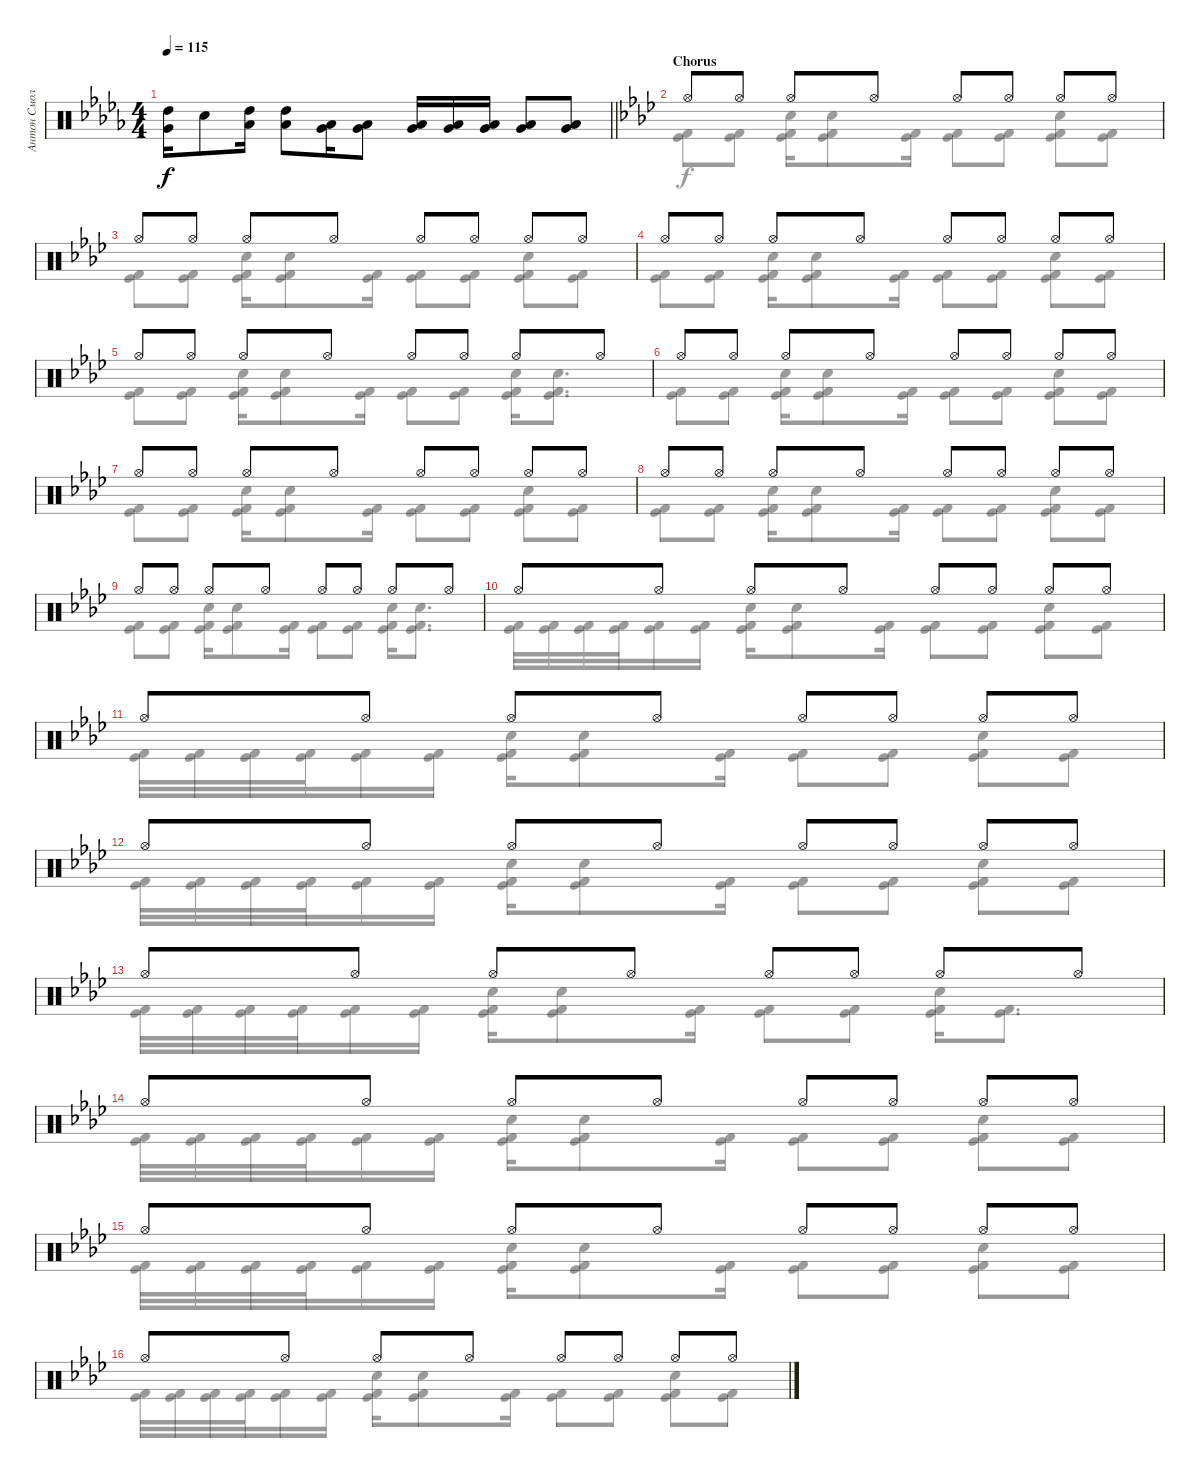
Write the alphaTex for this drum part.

\track ("Антон Смольянин" "Антон Смол") {instrument percussion}
\staff {score}
\articulation defaults
\voice
\ts (4 4)
\tempo 115
\clef neutral
\barLineRight lightlight
\ks db
("Very Low Tom (hit)" "High Tom (hit)").16{dy f} "Electric Snare (hit)".8 ("Low Tom (hit)" "High Tom (hit)").16 ("Low Tom (hit)" "High Tom (hit)").8 ("Low Tom (hit)" "Very Low Tom (hit)").16 ("Low Tom (hit)" "Very Low Tom (hit)").8 ("Very Low Tom (hit)" "Low Floor Tom (hit)").16 ("Very Low Tom (hit)" "Low Floor Tom (hit)").16 ("Very Low Tom (hit)" "Low Floor Tom (hit)").16 ("Very Low Tom (hit)" "Low Floor Tom (hit)").8 ("Very Low Tom (hit)" "Low Floor Tom (hit)").8 |
\section ("" "Chorus")
\ks ab "Hi-Hat (open)".8 "Hi-Hat (open)".8 "Hi-Hat (open)".8 "Hi-Hat (open)".8 "Hi-Hat (open)".8 "Hi-Hat (open)".8 "Hi-Hat (open)".8 "Hi-Hat (open)".8
|
"Hi-Hat (open)".8 "Hi-Hat (open)".8 "Hi-Hat (open)".8 "Hi-Hat (open)".8 "Hi-Hat (open)".8 "Hi-Hat (open)".8 "Hi-Hat (open)".8 "Hi-Hat (open)".8 |
"Hi-Hat (open)".8 "Hi-Hat (open)".8 "Hi-Hat (open)".8 "Hi-Hat (open)".8 "Hi-Hat (open)".8 "Hi-Hat (open)".8 "Hi-Hat (open)".8 "Hi-Hat (open)".8 |
"Hi-Hat (open)".8 "Hi-Hat (open)".8 "Hi-Hat (open)".8 "Hi-Hat (open)".8 "Hi-Hat (open)".8 "Hi-Hat (open)".8 "Hi-Hat (open)".8 "Hi-Hat (open)".8 |
"Hi-Hat (open)".8 "Hi-Hat (open)".8 "Hi-Hat (open)".8 "Hi-Hat (open)".8 "Hi-Hat (open)".8 "Hi-Hat (open)".8 "Hi-Hat (open)".8 "Hi-Hat (open)".8 |
"Hi-Hat (open)".8 "Hi-Hat (open)".8 "Hi-Hat (open)".8 "Hi-Hat (open)".8 "Hi-Hat (open)".8 "Hi-Hat (open)".8 "Hi-Hat (open)".8 "Hi-Hat (open)".8 |
"Hi-Hat (open)".8 "Hi-Hat (open)".8 "Hi-Hat (open)".8 "Hi-Hat (open)".8 "Hi-Hat (open)".8 "Hi-Hat (open)".8 "Hi-Hat (open)".8 "Hi-Hat (open)".8 |
"Hi-Hat (open)".8 "Hi-Hat (open)".8 "Hi-Hat (open)".8 "Hi-Hat (open)".8 "Hi-Hat (open)".8 "Hi-Hat (open)".8 "Hi-Hat (open)".8 "Hi-Hat (open)".8 |
"Hi-Hat (open)".8 "Hi-Hat (open)".8 "Hi-Hat (open)".8 "Hi-Hat (open)".8 "Hi-Hat (open)".8 "Hi-Hat (open)".8 "Hi-Hat (open)".8 "Hi-Hat (open)".8 |
"Hi-Hat (open)".8 "Hi-Hat (open)".8 "Hi-Hat (open)".8 "Hi-Hat (open)".8 "Hi-Hat (open)".8 "Hi-Hat (open)".8 "Hi-Hat (open)".8 "Hi-Hat (open)".8 |
"Hi-Hat (open)".8 "Hi-Hat (open)".8 "Hi-Hat (open)".8 "Hi-Hat (open)".8 "Hi-Hat (open)".8 "Hi-Hat (open)".8 "Hi-Hat (open)".8 "Hi-Hat (open)".8 |
"Hi-Hat (open)".8 "Hi-Hat (open)".8 "Hi-Hat (open)".8 "Hi-Hat (open)".8 "Hi-Hat (open)".8 "Hi-Hat (open)".8 "Hi-Hat (open)".8 "Hi-Hat (open)".8 |
"Hi-Hat (open)".8 "Hi-Hat (open)".8 "Hi-Hat (open)".8 "Hi-Hat (open)".8 "Hi-Hat (open)".8 "Hi-Hat (open)".8 "Hi-Hat (open)".8 "Hi-Hat (open)".8 |
"Hi-Hat (open)".8 "Hi-Hat (open)".8 "Hi-Hat (open)".8 "Hi-Hat (open)".8 "Hi-Hat (open)".8 "Hi-Hat (open)".8 "Hi-Hat (open)".8 "Hi-Hat (open)".8 |
"Hi-Hat (open)".8 "Hi-Hat (open)".8 "Hi-Hat (open)".8 "Hi-Hat (open)".8 "Hi-Hat (open)".8 "Hi-Hat (open)".8 "Hi-Hat (open)".8 "Hi-Hat (open)".8
\voice
\clef neutral
\ottava regular
\simile none
\barLineRight lightlight
\ks db
|
\ks ab
("Kick (hit) 2" "Kick (hit)").8 ("Kick (hit) 2" "Kick (hit)").8 ("Kick (hit) 2" "Kick (hit)" "Electric Snare (hit)").16 ("Kick (hit) 2" "Kick (hit)" "Electric Snare (hit)").8 ("Kick (hit) 2" "Kick (hit)").16 ("Kick (hit) 2" "Kick (hit)").8 ("Kick (hit) 2" "Kick (hit)").8 ("Kick (hit) 2" "Kick (hit)" "Electric Snare (hit)").8 ("Kick (hit) 2" "Kick (hit)").8 |
("Kick (hit) 2" "Kick (hit)").8 ("Kick (hit) 2" "Kick (hit)").8 ("Kick (hit) 2" "Kick (hit)" "Electric Snare (hit)").16 ("Kick (hit) 2" "Kick (hit)" "Electric Snare (hit)").8 ("Kick (hit) 2" "Kick (hit)").16 ("Kick (hit) 2" "Kick (hit)").8 ("Kick (hit) 2" "Kick (hit)").8 ("Kick (hit) 2" "Kick (hit)" "Electric Snare (hit)").8 ("Kick (hit) 2" "Kick (hit)").8 |
("Kick (hit) 2" "Kick (hit)").8 ("Kick (hit) 2" "Kick (hit)").8 ("Kick (hit) 2" "Kick (hit)" "Electric Snare (hit)").16 ("Kick (hit) 2" "Kick (hit)" "Electric Snare (hit)").8 ("Kick (hit) 2" "Kick (hit)").16 ("Kick (hit) 2" "Kick (hit)").8 ("Kick (hit) 2" "Kick (hit)").8 ("Kick (hit) 2" "Kick (hit)" "Electric Snare (hit)").8 ("Kick (hit) 2" "Kick (hit)").8 |
("Kick (hit) 2" "Kick (hit)").8 ("Kick (hit) 2" "Kick (hit)").8 ("Kick (hit) 2" "Kick (hit)" "Electric Snare (hit)").16 ("Kick (hit) 2" "Kick (hit)" "Electric Snare (hit)").8 ("Kick (hit) 2" "Kick (hit)").16 ("Kick (hit) 2" "Kick (hit)").8 ("Kick (hit) 2" "Kick (hit)").8 ("Kick (hit) 2" "Kick (hit)" "Electric Snare (hit)").16 ("Kick (hit) 2" "Kick (hit)" "Electric Snare (hit)").8{d} |
("Kick (hit) 2" "Kick (hit)").8 ("Kick (hit) 2" "Kick (hit)").8 ("Kick (hit) 2" "Kick (hit)" "Electric Snare (hit)").16 ("Kick (hit) 2" "Kick (hit)" "Electric Snare (hit)").8 ("Kick (hit) 2" "Kick (hit)").16 ("Kick (hit) 2" "Kick (hit)").8 ("Kick (hit) 2" "Kick (hit)").8 ("Kick (hit) 2" "Kick (hit)" "Electric Snare (hit)").8 ("Kick (hit) 2" "Kick (hit)").8 |
("Kick (hit) 2" "Kick (hit)").8 ("Kick (hit) 2" "Kick (hit)").8 ("Kick (hit) 2" "Kick (hit)" "Electric Snare (hit)").16 ("Kick (hit) 2" "Kick (hit)" "Electric Snare (hit)").8 ("Kick (hit) 2" "Kick (hit)").16 ("Kick (hit) 2" "Kick (hit)").8 ("Kick (hit) 2" "Kick (hit)").8 ("Kick (hit) 2" "Kick (hit)" "Electric Snare (hit)").8 ("Kick (hit) 2" "Kick (hit)").8 |
("Kick (hit) 2" "Kick (hit)").8 ("Kick (hit) 2" "Kick (hit)").8 ("Kick (hit) 2" "Kick (hit)" "Electric Snare (hit)").16 ("Kick (hit) 2" "Kick (hit)" "Electric Snare (hit)").8 ("Kick (hit) 2" "Kick (hit)").16 ("Kick (hit) 2" "Kick (hit)").8 ("Kick (hit) 2" "Kick (hit)").8 ("Kick (hit) 2" "Kick (hit)" "Electric Snare (hit)").8 ("Kick (hit) 2" "Kick (hit)").8 |
("Kick (hit) 2" "Kick (hit)").8 ("Kick (hit) 2" "Kick (hit)").8 ("Kick (hit) 2" "Kick (hit)" "Electric Snare (hit)").16 ("Kick (hit) 2" "Kick (hit)" "Electric Snare (hit)").8 ("Kick (hit) 2" "Kick (hit)").16 ("Kick (hit) 2" "Kick (hit)").8 ("Kick (hit) 2" "Kick (hit)").8 ("Kick (hit) 2" "Kick (hit)" "Electric Snare (hit)").16 ("Kick (hit) 2" "Kick (hit)" "Electric Snare (hit)").8{d} |
("Kick (hit) 2" "Kick (hit)").32 ("Kick (hit) 2" "Kick (hit)").32 ("Kick (hit) 2" "Kick (hit)").32 ("Kick (hit) 2" "Kick (hit)").32 ("Kick (hit) 2" "Kick (hit)").16 ("Kick (hit) 2" "Kick (hit)").16 ("Kick (hit) 2" "Kick (hit)" "Electric Snare (hit)").16 ("Kick (hit) 2" "Kick (hit)" "Electric Snare (hit)").8 ("Kick (hit) 2" "Kick (hit)").16 ("Kick (hit) 2" "Kick (hit)").8 ("Kick (hit) 2" "Kick (hit)").8 ("Kick (hit) 2" "Kick (hit)" "Electric Snare (hit)").8 ("Kick (hit) 2" "Kick (hit)").8 |
("Kick (hit) 2" "Kick (hit)").32 ("Kick (hit) 2" "Kick (hit)").32 ("Kick (hit) 2" "Kick (hit)").32 ("Kick (hit) 2" "Kick (hit)").32 ("Kick (hit) 2" "Kick (hit)").16 ("Kick (hit) 2" "Kick (hit)").16 ("Kick (hit) 2" "Kick (hit)" "Electric Snare (hit)").16 ("Kick (hit) 2" "Kick (hit)" "Electric Snare (hit)").8 ("Kick (hit) 2" "Kick (hit)").16 ("Kick (hit) 2" "Kick (hit)").8 ("Kick (hit) 2" "Kick (hit)").8 ("Kick (hit) 2" "Kick (hit)" "Electric Snare (hit)").8 ("Kick (hit) 2" "Kick (hit)").8 |
("Kick (hit) 2" "Kick (hit)").32 ("Kick (hit) 2" "Kick (hit)").32 ("Kick (hit) 2" "Kick (hit)").32 ("Kick (hit) 2" "Kick (hit)").32 ("Kick (hit) 2" "Kick (hit)").16 ("Kick (hit) 2" "Kick (hit)").16 ("Kick (hit) 2" "Kick (hit)" "Electric Snare (hit)").16 ("Kick (hit) 2" "Kick (hit)" "Electric Snare (hit)").8 ("Kick (hit) 2" "Kick (hit)").16 ("Kick (hit) 2" "Kick (hit)").8 ("Kick (hit) 2" "Kick (hit)").8 ("Kick (hit) 2" "Kick (hit)" "Electric Snare (hit)").8 ("Kick (hit) 2" "Kick (hit)").8 |
("Kick (hit) 2" "Kick (hit)").32 ("Kick (hit) 2" "Kick (hit)").32 ("Kick (hit) 2" "Kick (hit)").32 ("Kick (hit) 2" "Kick (hit)").32 ("Kick (hit) 2" "Kick (hit)").16 ("Kick (hit) 2" "Kick (hit)").16 ("Kick (hit) 2" "Kick (hit)" "Electric Snare (hit)").16 ("Kick (hit) 2" "Kick (hit)" "Electric Snare (hit)").8 ("Kick (hit) 2" "Kick (hit)").16 ("Kick (hit) 2" "Kick (hit)").8 ("Kick (hit) 2" "Kick (hit)").8 ("Kick (hit) 2" "Kick (hit)" "Electric Snare (hit)").16 ("Kick (hit) 2" "Kick (hit)").8{d} |
("Kick (hit) 2" "Kick (hit)").32 ("Kick (hit) 2" "Kick (hit)").32 ("Kick (hit) 2" "Kick (hit)").32 ("Kick (hit) 2" "Kick (hit)").32 ("Kick (hit) 2" "Kick (hit)").16 ("Kick (hit) 2" "Kick (hit)").16 ("Kick (hit) 2" "Kick (hit)" "Electric Snare (hit)").16 ("Kick (hit) 2" "Kick (hit)" "Electric Snare (hit)").8 ("Kick (hit) 2" "Kick (hit)").16 ("Kick (hit) 2" "Kick (hit)").8 ("Kick (hit) 2" "Kick (hit)").8 ("Kick (hit) 2" "Kick (hit)" "Electric Snare (hit)").8 ("Kick (hit) 2" "Kick (hit)").8 |
("Kick (hit) 2" "Kick (hit)").32 ("Kick (hit) 2" "Kick (hit)").32 ("Kick (hit) 2" "Kick (hit)").32 ("Kick (hit) 2" "Kick (hit)").32 ("Kick (hit) 2" "Kick (hit)").16 ("Kick (hit) 2" "Kick (hit)").16 ("Kick (hit) 2" "Kick (hit)" "Electric Snare (hit)").16 ("Kick (hit) 2" "Kick (hit)" "Electric Snare (hit)").8 ("Kick (hit) 2" "Kick (hit)").16 ("Kick (hit) 2" "Kick (hit)").8 ("Kick (hit) 2" "Kick (hit)").8 ("Kick (hit) 2" "Kick (hit)" "Electric Snare (hit)").8 ("Kick (hit) 2" "Kick (hit)").8 |
("Kick (hit) 2" "Kick (hit)").32 ("Kick (hit) 2" "Kick (hit)").32 ("Kick (hit) 2" "Kick (hit)").32 ("Kick (hit) 2" "Kick (hit)").32 ("Kick (hit) 2" "Kick (hit)").16 ("Kick (hit) 2" "Kick (hit)").16 ("Kick (hit) 2" "Kick (hit)" "Electric Snare (hit)").16 ("Kick (hit) 2" "Kick (hit)" "Electric Snare (hit)").8 ("Kick (hit) 2" "Kick (hit)").16 ("Kick (hit) 2" "Kick (hit)").8 ("Kick (hit) 2" "Kick (hit)").8 ("Kick (hit) 2" "Kick (hit)" "Electric Snare (hit)").8 ("Kick (hit) 2" "Kick (hit)").8
